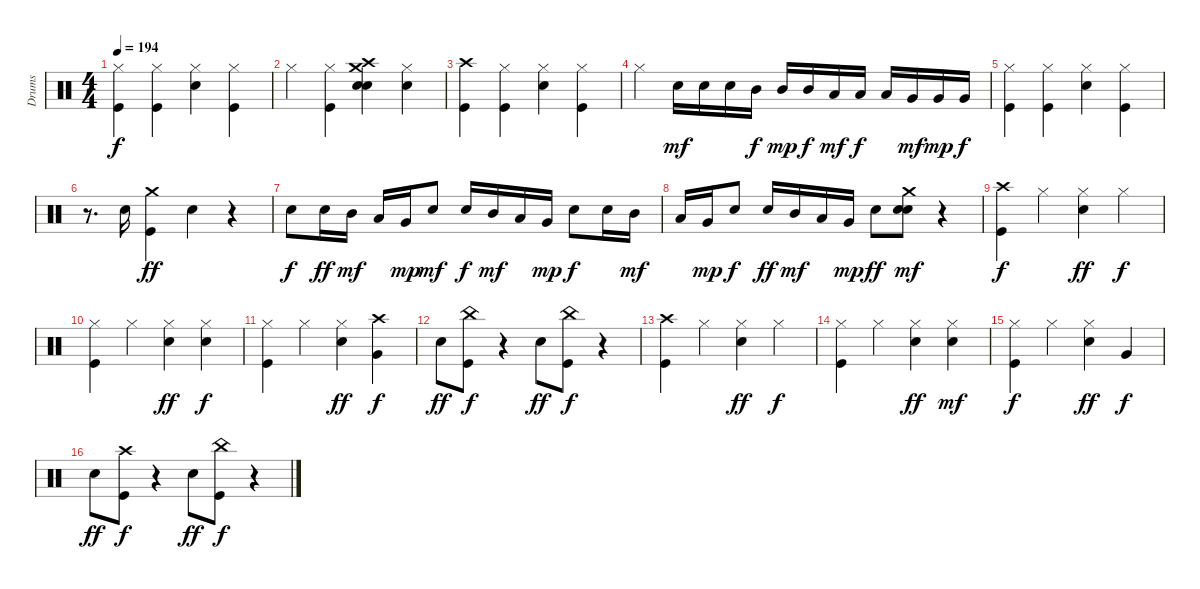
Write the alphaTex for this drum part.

\track ("Drums" "Drums") {instrument percussion}
\staff {score}
\articulation defaults
\ts (4 4)
\tempo 194
\clef neutral
\ks c
("Kick (hit)" "Hi-Hat (closed)").4{dy f} ("Kick (hit)" "Hi-Hat (closed)").4 ("Snare (hit) 2" "Hi-Hat (closed)").4 ("Kick (hit)" "Hi-Hat (closed)").4 |
"Hi-Hat (closed)".4 ("Kick (hit)" "Hi-Hat (closed)").4 ("Snare (hit) 2" "Snare (hit)" "Crash medium (hit)" "Crash high (hit)").4 ("Snare (hit) 2" "Hi-Hat (closed)").4 |
("Kick (hit)" "Crash high (hit)").4 ("Kick (hit)" "Hi-Hat (closed)").4 ("Snare (hit) 2" "Hi-Hat (closed)").4 ("Kick (hit)" "Hi-Hat (closed)").4 |
"Hi-Hat (closed)".4 "Snare (hit) 2".16{dy mf} "Snare (hit) 2".16 "Snare (hit) 2".16 "Mid Tom (hit)".16{dy f} "Mid Tom (hit)".16{dy mp} "Mid Tom (hit)".16{dy f} "Low Tom (hit)".16{dy mf} "Low Tom (hit)".16{dy f} "Low Tom (hit)".16 "Very Low Tom (hit)".16{dy mf} "Very Low Tom (hit)".16{dy mp} "Very Low Tom (hit)".16{dy f} |
("Kick (hit)" "Hi-Hat (closed)").4 ("Kick (hit)" "Hi-Hat (closed)").4 ("Snare (hit) 2" "Hi-Hat (closed)").4 ("Kick (hit)" "Hi-Hat (closed)").4 |
r.8{d} "Snare (hit) 2".16 ("Kick (hit)" "Crash medium (hit)").4{dy ff} "Snare (hit) 2".4 r.4 |
"Snare (hit) 2".8{dy f} "Snare (hit) 2".16{dy ff} "Mid Tom (hit)".16{dy mf} "Low Tom (hit)".16 "Very Low Tom (hit)".16{dy mp} "Snare (hit) 2".8{dy mf} "Snare (hit) 2".16{dy f} "Mid Tom (hit)".16{dy mf} "Low Tom (hit)".16 "Very Low Tom (hit)".16{dy mp} "Snare (hit) 2".8{dy f} "Snare (hit) 2".16 "Mid Tom (hit)".16{dy mf} |
"Low Tom (hit)".16 "Very Low Tom (hit)".16{dy mp} "Snare (hit) 2".8{dy f} "Snare (hit) 2".16{dy ff} "Mid Tom (hit)".16{dy mf} "Low Tom (hit)".16 "Very Low Tom (hit)".16{dy mp} "Snare (hit) 2".8{dy ff} ("Snare (hit)" "Snare (hit) 2" "Crash medium (hit)").8{dy mf} r.4 |
("Kick (hit)" "Crash high (hit)").4{dy f} "Hi-Hat (closed)".4 ("Snare (hit) 2" "Hi-Hat (closed)").4{dy ff} "Hi-Hat (closed)".4{dy f} |
("Kick (hit)" "Hi-Hat (closed)").4 "Hi-Hat (closed)".4 ("Snare (hit) 2" "Hi-Hat (closed)").4{dy ff} ("Snare (hit) 2" "Hi-Hat (closed)").4{dy f} |
("Kick (hit)" "Hi-Hat (closed)").4 "Hi-Hat (closed)".4 ("Snare (hit) 2" "Hi-Hat (closed)").4{dy ff} ("Very Low Tom (hit)" "Crash high (hit)").4{dy f} |
"Snare (hit) 2".8{dy ff} ("Kick (hit)" "China (hit)").8{dy f} r.4 "Snare (hit) 2".8{dy ff} ("Kick (hit)" "China (hit)").8{dy f} r.4 |
("Kick (hit)" "Crash high (hit)").4 "Hi-Hat (closed)".4 ("Snare (hit) 2" "Hi-Hat (closed)").4{dy ff} "Hi-Hat (closed)".4{dy f} |
("Kick (hit)" "Hi-Hat (closed)").4 "Hi-Hat (closed)".4 ("Snare (hit) 2" "Hi-Hat (closed)").4{dy ff} ("Snare (hit) 2" "Hi-Hat (closed)").4{dy mf} |
("Kick (hit)" "Hi-Hat (closed)").4{dy f} "Hi-Hat (closed)".4 ("Snare (hit) 2" "Hi-Hat (closed)").4{dy ff} "Very Low Tom (hit)".4{dy f} |
"Snare (hit) 2".8{dy ff} ("Kick (hit)" "Crash high (hit)").8{dy f} r.4 "Snare (hit) 2".8{dy ff} ("Kick (hit)" "China (hit)").8{dy f} r.4
